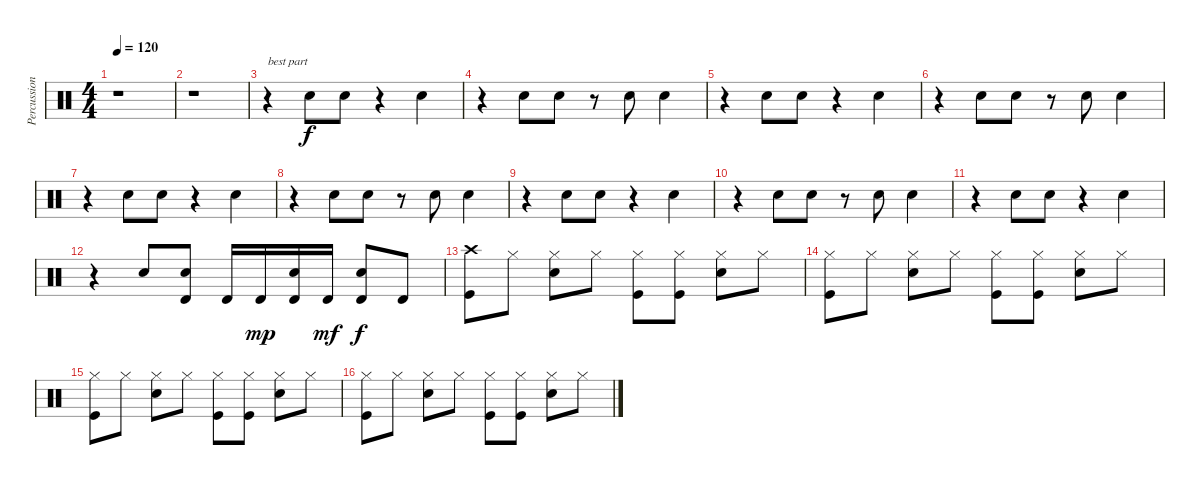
\track ("Percussion" "Percussion") {instrument percussion}
\staff {score}
\articulation defaults
\ts (4 4)
\tempo 120
\clef neutral
\ks c
r.1{dy f} |
r.1 |
r.4{txt "best part"} "Hand Clap (hit)".8 "Hand Clap (hit)".8 r.4 "Hand Clap (hit)".4 |
r.4 "Hand Clap (hit)".8 "Hand Clap (hit)".8 r.8 "Hand Clap (hit)".8 "Hand Clap (hit)".4 |
r.4 "Hand Clap (hit)".8 "Hand Clap (hit)".8 r.4 "Hand Clap (hit)".4 |
r.4 "Hand Clap (hit)".8 "Hand Clap (hit)".8 r.8 "Hand Clap (hit)".8 "Hand Clap (hit)".4 |
r.4 "Hand Clap (hit)".8 "Hand Clap (hit)".8 r.4 "Hand Clap (hit)".4 |
r.4 "Hand Clap (hit)".8 "Hand Clap (hit)".8 r.8 "Hand Clap (hit)".8 "Hand Clap (hit)".4 |
r.4 "Hand Clap (hit)".8 "Hand Clap (hit)".8 r.4 "Hand Clap (hit)".4 |
r.4 "Hand Clap (hit)".8 "Hand Clap (hit)".8 r.8 "Hand Clap (hit)".8 "Hand Clap (hit)".4 |
r.4 "Hand Clap (hit)".8 "Hand Clap (hit)".8 r.4 "Hand Clap (hit)".4 |
r.4 "Hand Clap (hit)".8 ("Hand Clap (hit)" "Timbale high (hit)").8 "Timbale high (hit)".16 "Timbale high (hit)".16{dy mp} ("Hand Clap (hit)" "Timbale high (hit)").16 "Timbale high (hit)".16{dy mf} ("Hand Clap (hit)" "Timbale high (hit)").8{dy f} "Timbale high (hit)".8 |
("Crash high (hit)" "Kick (hit)").8 "Hi-Hat (closed)".8 ("Hi-Hat (closed)" "Snare (hit) 2").8 "Hi-Hat (closed)".8 ("Hi-Hat (closed)" "Kick (hit)").8 ("Hi-Hat (closed)" "Kick (hit)").8 ("Hi-Hat (closed)" "Snare (hit) 2").8 "Hi-Hat (closed)".8 |
("Hi-Hat (closed)" "Kick (hit)").8 "Hi-Hat (closed)".8 ("Hi-Hat (closed)" "Snare (hit) 2").8 "Hi-Hat (closed)".8 ("Hi-Hat (closed)" "Kick (hit)").8 ("Hi-Hat (closed)" "Kick (hit)").8 ("Hi-Hat (closed)" "Snare (hit) 2").8 "Hi-Hat (closed)".8 |
("Hi-Hat (closed)" "Kick (hit)").8 "Hi-Hat (closed)".8 ("Hi-Hat (closed)" "Snare (hit) 2").8 "Hi-Hat (closed)".8 ("Hi-Hat (closed)" "Kick (hit)").8 ("Hi-Hat (closed)" "Kick (hit)").8 ("Hi-Hat (closed)" "Snare (hit) 2").8 "Hi-Hat (closed)".8 |
("Hi-Hat (closed)" "Kick (hit)").8 "Hi-Hat (closed)".8 ("Hi-Hat (closed)" "Snare (hit) 2").8 "Hi-Hat (closed)".8 ("Hi-Hat (closed)" "Kick (hit)").8 ("Hi-Hat (closed)" "Kick (hit)").8 ("Hi-Hat (closed)" "Snare (hit) 2").8 "Hi-Hat (closed)".8
